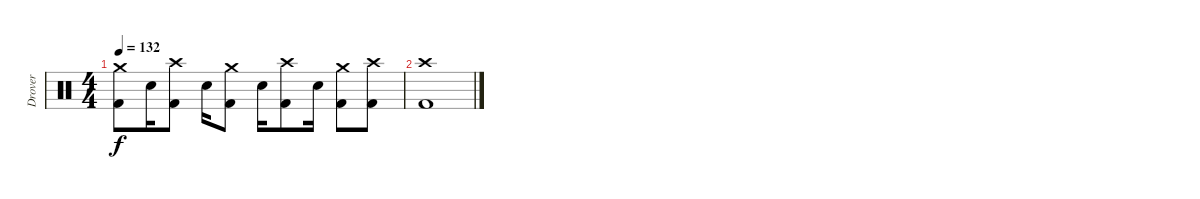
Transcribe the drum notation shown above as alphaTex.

\track ("Drover" "Drover") {instrument percussion}
\staff {score}
\articulation defaults
\ts (4 4)
\tempo 132
\clef neutral
\ks c
("Crash medium (hit)" "Kick (hit) 2").8{dy f} "Snare (hit) 2".16 ("Crash high (hit)" "Kick (hit) 2").8 "Snare (hit) 2".16 ("Crash medium (hit)" "Kick (hit) 2").8 "Snare (hit) 2".16 ("Crash high (hit)" "Kick (hit) 2").8 "Snare (hit) 2".16 ("Crash medium (hit)" "Kick (hit) 2").8 ("Crash high (hit)" "Kick (hit) 2").8 |
("Crash high (hit)" "Kick (hit) 2").1
